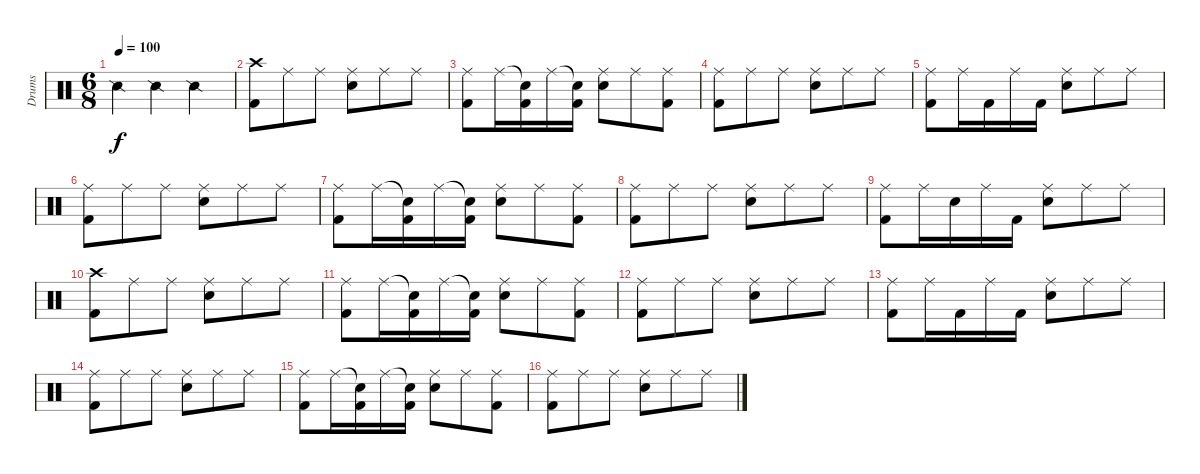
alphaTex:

\track ("Drums" "Drums") {instrument percussion}
\staff {score}
\articulation defaults
\ts (6 8)
\tempo 100
\clef neutral
\ks c "Snare (side stick) 2".4{dy f} "Snare (side stick) 2".4 "Snare (side stick) 2".4
|
("Crash high (hit)" "Kick (hit) 2").8 "Ride (middle)".8 "Ride (middle)".8 ("Ride (middle)" "Snare (hit) 2").8 "Ride (middle)".8 "Ride (middle)".8 |
("Ride (middle)" "Kick (hit) 2").8 "Ride (middle)".16 ("Snare (hit)"{t} "Kick (hit) 2").16 "Ride (middle)".16 ("Snare (hit)"{t} "Kick (hit) 2").16 ("Ride (middle)" "Snare (hit) 2").8 "Ride (middle)".8 ("Ride (middle)" "Kick (hit) 2").8 |
("Ride (middle)" "Kick (hit) 2").8 "Ride (middle)".8 "Ride (middle)".8 ("Ride (middle)" "Snare (hit) 2").8 "Ride (middle)".8 "Ride (middle)".8 |
("Ride (middle)" "Kick (hit) 2").8 "Ride (middle)".16 "Kick (hit) 2".16 "Ride (middle)".16 "Kick (hit) 2".16 ("Ride (middle)" "Snare (hit) 2").8 "Ride (middle)".8 "Ride (middle)".8 |
("Ride (middle)" "Kick (hit) 2").8 "Ride (middle)".8 "Ride (middle)".8 ("Ride (middle)" "Snare (hit) 2").8 "Ride (middle)".8 "Ride (middle)".8 |
("Ride (middle)" "Kick (hit) 2").8 "Ride (middle)".16 ("Snare (hit)"{t} "Kick (hit) 2").16 "Ride (middle)".16 ("Snare (hit)"{t} "Kick (hit) 2").16 ("Ride (middle)" "Snare (hit) 2").8 "Ride (middle)".8 ("Ride (middle)" "Kick (hit) 2").8 |
("Ride (middle)" "Kick (hit) 2").8 "Ride (middle)".8 "Ride (middle)".8 ("Ride (middle)" "Snare (hit) 2").8 "Ride (middle)".8 "Ride (middle)".8 |
("Ride (middle)" "Kick (hit) 2").8 "Ride (middle)".16 "Snare (hit) 2".16 "Ride (middle)".16 "Kick (hit) 2".16 ("Ride (middle)" "Snare (hit) 2").8 "Ride (middle)".8 "Ride (middle)".8 |
("Crash high (hit)" "Kick (hit) 2").8 "Ride (middle)".8 "Ride (middle)".8 ("Ride (middle)" "Snare (hit) 2").8 "Ride (middle)".8 "Ride (middle)".8 |
("Ride (middle)" "Kick (hit) 2").8 "Ride (middle)".16 ("Snare (hit)"{t} "Kick (hit) 2").16 "Ride (middle)".16 ("Snare (hit)"{t} "Kick (hit) 2").16 ("Ride (middle)" "Snare (hit) 2").8 "Ride (middle)".8 ("Ride (middle)" "Kick (hit) 2").8 |
("Ride (middle)" "Kick (hit) 2").8 "Ride (middle)".8 "Ride (middle)".8 ("Ride (middle)" "Snare (hit) 2").8 "Ride (middle)".8 "Ride (middle)".8 |
("Ride (middle)" "Kick (hit) 2").8 "Ride (middle)".16 "Kick (hit) 2".16 "Ride (middle)".16 "Kick (hit) 2".16 ("Ride (middle)" "Snare (hit) 2").8 "Ride (middle)".8 "Ride (middle)".8 |
("Ride (middle)" "Kick (hit) 2").8 "Ride (middle)".8 "Ride (middle)".8 ("Ride (middle)" "Snare (hit) 2").8 "Ride (middle)".8 "Ride (middle)".8 |
("Ride (middle)" "Kick (hit) 2").8 "Ride (middle)".16 ("Snare (hit)"{t} "Kick (hit) 2").16 "Ride (middle)".16 ("Snare (hit)"{t} "Kick (hit) 2").16 ("Ride (middle)" "Snare (hit) 2").8 "Ride (middle)".8 ("Ride (middle)" "Kick (hit) 2").8 |
("Ride (middle)" "Kick (hit) 2").8 "Ride (middle)".8 "Ride (middle)".8 ("Ride (middle)" "Snare (hit) 2").8 "Ride (middle)".8 "Ride (middle)".8
